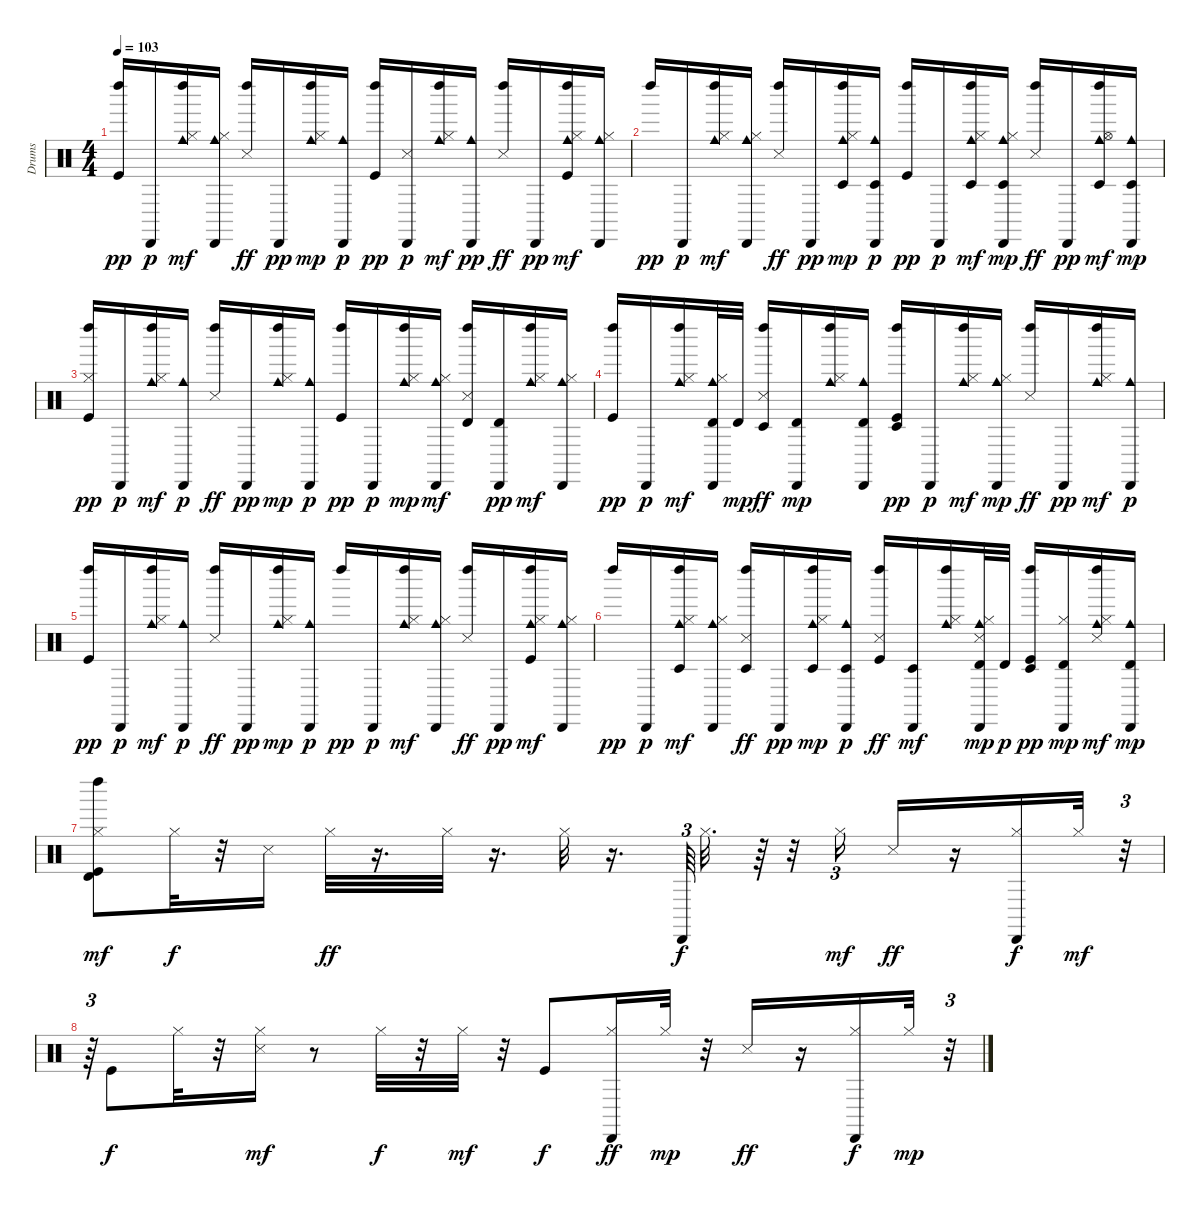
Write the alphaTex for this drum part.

\track ("Drums" "Drums") {instrument percussion}
\staff {score}
\articulation defaults
\ts (4 4)
\tempo 103
\clef neutral
\ks c
("Left Maraca (hit)" "Kick (hit)").16{dy pp} "Cabasa (hit)".16{dy p} ("Left Maraca (hit)" "Hi-Hat (closed)" "Cowbell medium (hit)").16{dy mf} ("Cowbell medium (hit)" "Cabasa (hit)" "Hi-Hat (closed)").16 ("Left Maraca (hit)" "Snare (side stick) 3").16{dy ff} "Cabasa (hit)".16{dy pp} ("Left Maraca (hit)" "Hi-Hat (closed)" "Cowbell medium (hit)").16{dy mp} ("Cowbell medium (hit)" "Cabasa (hit)").16{dy p} ("Left Maraca (hit)" "Kick (hit)").16{dy pp} ("Cabasa (hit)" "Snare (side stick) 3").16{dy p} ("Left Maraca (hit)" "Hi-Hat (closed)" "Cowbell medium (hit)").16{dy mf} ("Cowbell medium (hit)" "Cabasa (hit)").16{dy pp} ("Left Maraca (hit)" "Snare (side stick) 3").16{dy ff} "Cabasa (hit)".16{dy pp} ("Left Maraca (hit)" "Kick (hit)" "Hi-Hat (closed)" "Cowbell medium (hit)").16{dy mf} ("Cowbell medium (hit)" "Cabasa (hit)" "Hi-Hat (closed)").16 |
"Left Maraca (hit)".16{dy pp} "Cabasa (hit)".16{dy p} ("Left Maraca (hit)" "Hi-Hat (closed)" "Cowbell medium (hit)").16{dy mf} ("Cowbell medium (hit)" "Cabasa (hit)" "Hi-Hat (closed)").16 ("Left Maraca (hit)" "Snare (side stick) 3").16{dy ff} "Cabasa (hit)".16{dy pp} ("Left Maraca (hit)" "Hi-Hat (closed)" "Timbale low (hit)" "Cowbell medium (hit)").16{dy mp} ("Timbale low (hit)" "Cowbell medium (hit)" "Cabasa (hit)").16{dy p} ("Left Maraca (hit)" "Kick (hit)").16{dy pp} "Cabasa (hit)".16{dy p} ("Left Maraca (hit)" "Hi-Hat (closed)" "Cowbell medium (hit)" "Timbale low (hit)").16{dy mf} ("Timbale low (hit)" "Cowbell medium (hit)" "Cabasa (hit)" "Hi-Hat (closed)").16{dy mp} ("Left Maraca (hit)" "Snare (side stick) 3").16{dy ff} "Cabasa (hit)".16{dy pp} ("Left Maraca (hit)" "Hi-Hat (open)" "Cowbell medium (hit)" "Timbale low (hit)").16{dy mf} ("Cowbell medium (hit)" "Cabasa (hit)" "Timbale low (hit)").16{dy mp} |
("Left Maraca (hit)" "Hi-Hat (closed)" "Kick (hit)").16{dy pp} "Cabasa (hit)".16{dy p} ("Left Maraca (hit)" "Hi-Hat (closed)" "Cowbell medium (hit)").16{dy mf} ("Cowbell medium (hit)" "Cabasa (hit)").16{dy p} ("Left Maraca (hit)" "Snare (side stick) 3").16{dy ff} "Cabasa (hit)".16{dy pp} ("Left Maraca (hit)" "Hi-Hat (closed)" "Cowbell medium (hit)").16{dy mp} ("Cowbell medium (hit)" "Cabasa (hit)").16{dy p} ("Left Maraca (hit)" "Kick (hit)").16{dy pp} "Cabasa (hit)".16{dy p} ("Left Maraca (hit)" "Hi-Hat (closed)" "Cowbell medium (hit)").16{dy mp} ("Cowbell medium (hit)" "Cabasa (hit)" "Hi-Hat (closed)").16{dy mf} ("Left Maraca (hit)" "Snare (side stick) 3" "Timbale high (hit)").16 ("Timbale high (hit)" "Cabasa (hit)").16{dy pp} ("Left Maraca (hit)" "Hi-Hat (closed)" "Cowbell medium (hit)").16{dy mf} ("Cowbell medium (hit)" "Cabasa (hit)" "Hi-Hat (closed)").16 |
("Left Maraca (hit)" "Kick (hit)").16{dy pp} "Cabasa (hit)".16{dy p} ("Left Maraca (hit)" "Hi-Hat (closed)" "Cowbell medium (hit)").16{dy mf} ("Cowbell medium (hit)" "Cabasa (hit)" "Timbale high (hit)" "Hi-Hat (closed)").32 "Timbale high (hit)".32{dy mp} ("Left Maraca (hit)" "Snare (side stick) 3" "Timbale low (hit)").16{dy ff} ("Cabasa (hit)" "Timbale high (hit)").16{dy mp} ("Left Maraca (hit)" "Hi-Hat (closed)" "Cowbell medium (hit)").16 ("Cowbell medium (hit)" "Cabasa (hit)" "Timbale high (hit)").16 ("Left Maraca (hit)" "Kick (hit)" "Timbale low (hit)").16{dy pp} "Cabasa (hit)".16{dy p} ("Left Maraca (hit)" "Hi-Hat (closed)" "Cowbell medium (hit)").16{dy mf} ("Cowbell medium (hit)" "Cabasa (hit)" "Hi-Hat (closed)").16{dy mp} ("Left Maraca (hit)" "Snare (side stick) 3").16{dy ff} "Cabasa (hit)".16{dy pp} ("Left Maraca (hit)" "Hi-Hat (closed)" "Cowbell medium (hit)").16{dy mf} ("Cowbell medium (hit)" "Cabasa (hit)").16{dy p} |
("Left Maraca (hit)" "Kick (hit)").16{dy pp} "Cabasa (hit)".16{dy p} ("Left Maraca (hit)" "Hi-Hat (closed)" "Cowbell medium (hit)").16{dy mf} ("Cowbell medium (hit)" "Cabasa (hit)").16{dy p} ("Left Maraca (hit)" "Snare (side stick) 3").16{dy ff} "Cabasa (hit)".16{dy pp} ("Left Maraca (hit)" "Hi-Hat (closed)" "Cowbell medium (hit)").16{dy mp} ("Cowbell medium (hit)" "Cabasa (hit)").16{dy p} "Left Maraca (hit)".16{dy pp} "Cabasa (hit)".16{dy p} ("Left Maraca (hit)" "Hi-Hat (closed)" "Cowbell medium (hit)").16{dy mf} ("Cowbell medium (hit)" "Cabasa (hit)" "Hi-Hat (closed)").16 ("Left Maraca (hit)" "Snare (side stick) 3").16{dy ff} "Cabasa (hit)".16{dy pp} ("Left Maraca (hit)" "Kick (hit)" "Hi-Hat (closed)" "Cowbell medium (hit)").16{dy mf} ("Cowbell medium (hit)" "Cabasa (hit)" "Hi-Hat (closed)").16 |
"Left Maraca (hit)".16{dy pp} "Cabasa (hit)".16{dy p} ("Timbale low (hit)" "Left Maraca (hit)" "Hi-Hat (closed)" "Cowbell medium (hit)").16{dy mf} ("Cowbell medium (hit)" "Cabasa (hit)" "Hi-Hat (closed)").16 ("Timbale low (hit)" "Left Maraca (hit)" "Snare (side stick) 3").16{dy ff} "Cabasa (hit)".16{dy pp} ("Left Maraca (hit)" "Hi-Hat (closed)" "Cowbell medium (hit)" "Timbale low (hit)").16{dy mp} ("Timbale low (hit)" "Cowbell medium (hit)" "Cabasa (hit)").16{dy p} ("Left Maraca (hit)" "Kick (hit)" "Snare (side stick) 3").16{dy ff} ("Cabasa (hit)" "Timbale low (hit)").16{dy mf} ("Left Maraca (hit)" "Hi-Hat (closed)" "Cowbell medium (hit)").16 ("Cowbell medium (hit)" "Cabasa (hit)" "Snare (side stick) 3" "Timbale high (hit)" "Hi-Hat (closed)").32{dy mp} "Timbale high (hit)".32{dy p} ("Left Maraca (hit)" "Kick (hit)" "Timbale low (hit)").16{dy pp} ("Cabasa (hit)" "Timbale high (hit)" "Hi-Hat (closed)").16{dy mp} ("Left Maraca (hit)" "Snare (side stick) 3" "Hi-Hat (closed)" "Cowbell medium (hit)").16{dy mf} ("Cowbell medium (hit)" "Cabasa (hit)" "Timbale high (hit)").16{dy mp} |
("Left Maraca (hit)" "Kick (hit)" "Hi-Hat (closed)" "Timbale high (hit)").8{dy mf} "Hi-Hat (closed)".32{dy f} r.32 "Snare (side stick) 3".16 "Hi-Hat (closed)".32{dy ff} r.16{d} "Hi-Hat (closed)".32 r.16{d} "Hi-Hat (closed)".32 r.16{d} "Cabasa (hit)".64{tu (3 2) dy f} "Hi-Hat (closed)".32{d} r.64 r.32 "Hi-Hat (closed)".16{tu (3 2) dy mf} "Snare (side stick) 3".16{dy ff} r.16 ("Cabasa (hit)" "Hi-Hat (closed)").16{dy f} "Hi-Hat (closed)".32{dy mf} r.32{tu (3 2)} |
r.64{tu (3 2)} "Kick (hit)".8{dy f} "Hi-Hat (closed)".32 r.32 ("Snare (side stick) 3" "Hi-Hat (closed)").16{dy mf} r.8 "Hi-Hat (closed)".32{dy f} r.32 "Hi-Hat (closed)".32{dy mf} r.32 "Kick (hit)".8{dy f} ("Cabasa (hit)" "Hi-Hat (closed)").16{dy ff} "Hi-Hat (closed)".32{dy mp} r.32 "Snare (side stick) 3".16{dy ff} r.16 ("Cabasa (hit)" "Hi-Hat (closed)").16{dy f} "Hi-Hat (closed)".32{dy mp} r.32{tu (3 2)}
